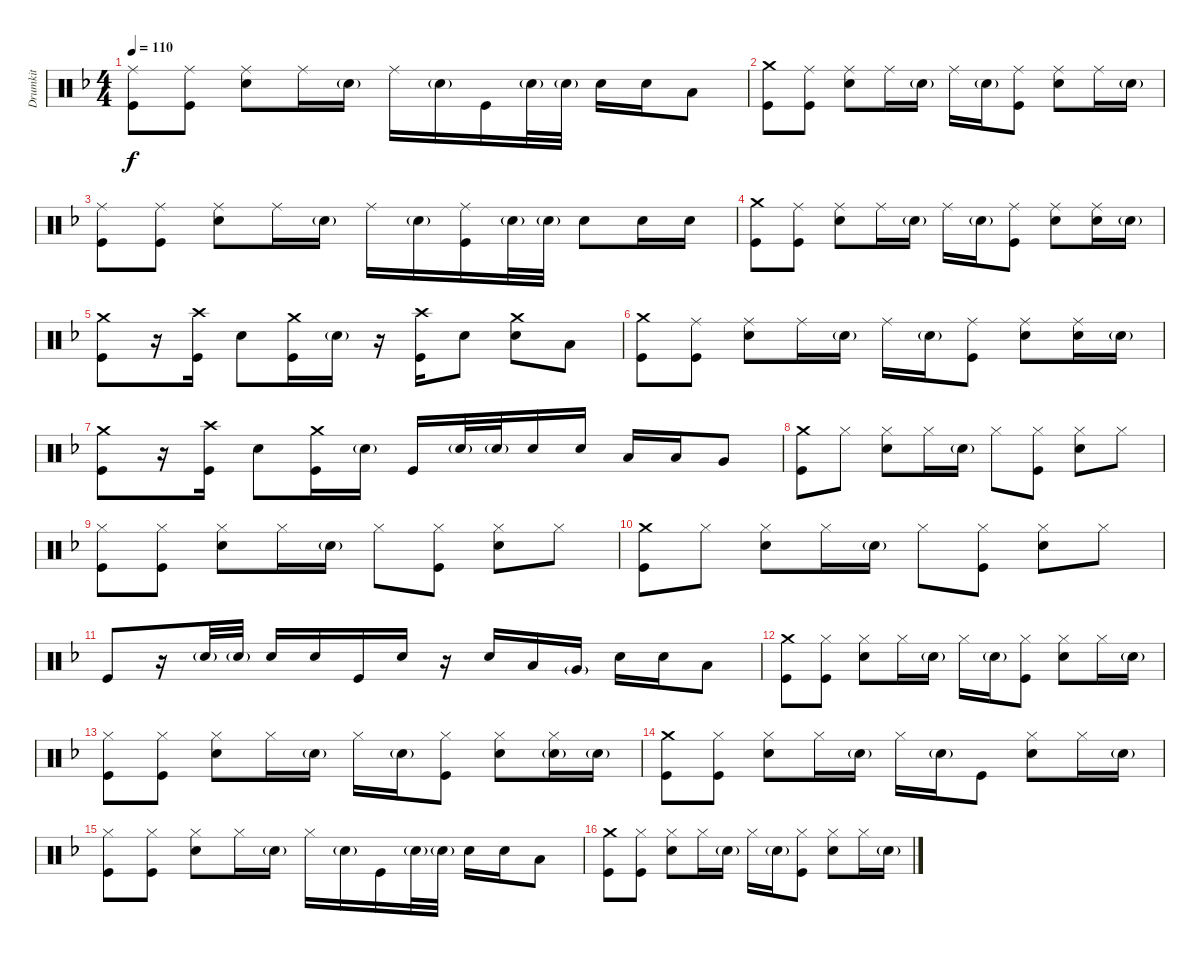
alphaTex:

\track ("Drumkit" "Drumkit") {instrument percussion}
\staff {score}
\articulation defaults
\ts (4 4)
\tempo 110
\clef neutral
\ks dminor
("Kick (hit)" "Ride (middle)").8{dy f} ("Kick (hit)" "Ride (middle)").8 ("Snare (hit) 2" "Ride (middle)").8 "Ride (middle)".16 "Snare (hit) 2"{g}.16 "Ride (middle)".16 "Snare (hit) 2"{g}.16 "Kick (hit)".16 "Snare (hit) 2"{g}.32 "Snare (hit) 2"{g}.32 "Snare (hit) 2".16 "Snare (hit) 2".16 "Low Tom (hit)".8 |
("Kick (hit)" "Crash medium (hit)").8 ("Kick (hit)" "Ride (middle)").8 ("Snare (hit) 2" "Ride (middle)").8 "Ride (middle)".16 "Snare (hit) 2"{g}.16 "Ride (middle)".16 "Snare (hit) 2"{g}.16 ("Kick (hit)" "Ride (middle)").8 ("Snare (hit) 2" "Ride (middle)").8 "Ride (middle)".16 "Snare (hit) 2"{g}.16 |
("Kick (hit)" "Ride (middle)").8 ("Kick (hit)" "Ride (middle)").8 ("Snare (hit) 2" "Ride (middle)").8 "Ride (middle)".16 "Snare (hit) 2"{g}.16 "Ride (middle)".16 "Snare (hit) 2"{g}.16 ("Kick (hit)" "Ride (middle)").16 "Snare (hit) 2"{g}.32 "Snare (hit) 2"{g}.32 "Snare (hit) 2".8 "Snare (hit) 2".16 "Snare (hit) 2".16 |
("Kick (hit)" "Crash medium (hit)").8 ("Kick (hit)" "Ride (middle)").8 ("Snare (hit) 2" "Ride (middle)").8 "Ride (middle)".16 "Snare (hit) 2"{g}.16 "Ride (middle)".16 "Snare (hit) 2"{g}.16 ("Kick (hit)" "Ride (middle)").8 ("Snare (hit) 2" "Ride (middle)").8 ("Ride (middle)" "Snare (hit) 2").16 "Snare (hit) 2"{g}.16 |
("Kick (hit)" "Crash medium (hit)").8 r.16 ("Kick (hit)" "Crash high (hit)").16 "Snare (hit) 2".8 ("Kick (hit)" "Crash medium (hit)").16 "Snare (hit) 2"{g}.16 r.16 ("Kick (hit)" "Crash high (hit)").16 "Snare (hit) 2".8 ("Snare (hit) 2" "Crash medium (hit)").8 "Low Tom (hit)".8 |
("Kick (hit)" "Crash medium (hit)").8 ("Kick (hit)" "Ride (middle)").8 ("Snare (hit) 2" "Ride (middle)").8 "Ride (middle)".16 "Snare (hit) 2"{g}.16 "Ride (middle)".16 "Snare (hit) 2"{g}.16 ("Kick (hit)" "Ride (middle)").8 ("Snare (hit) 2" "Ride (middle)").8 ("Ride (middle)" "Snare (hit) 2").16 "Snare (hit) 2"{g}.16 |
("Kick (hit)" "Crash medium (hit)").8 r.16 ("Kick (hit)" "Crash high (hit)").16 "Snare (hit) 2".8 ("Kick (hit)" "Crash medium (hit)").16 "Snare (hit) 2"{g}.16 "Kick (hit)".16 "Snare (hit) 2"{g}.32 "Snare (hit) 2"{g}.32 "Snare (hit) 2".16 "Snare (hit) 2".16 "Low Tom (hit)".16 "Low Tom (hit)".16 "Very Low Tom (hit)".8 |
("Kick (hit)" "Crash medium (hit)").8 "Hi-Hat (closed)".8 ("Snare (hit) 2" "Hi-Hat (closed)").8 "Hi-Hat (closed)".16 "Snare (hit) 2"{g}.16 "Hi-Hat (closed)".8 ("Kick (hit)" "Hi-Hat (closed)").8 ("Snare (hit) 2" "Hi-Hat (closed)").8 "Hi-Hat (closed)".8 |
("Kick (hit)" "Hi-Hat (closed)").8 ("Kick (hit)" "Hi-Hat (closed)").8 ("Snare (hit) 2" "Hi-Hat (closed)").8 "Hi-Hat (closed)".16 "Snare (hit) 2"{g}.16 "Hi-Hat (closed)".8 ("Kick (hit)" "Hi-Hat (closed)").8 ("Snare (hit) 2" "Hi-Hat (closed)").8 "Hi-Hat (closed)".8 |
("Kick (hit)" "Crash medium (hit)").8 "Hi-Hat (closed)".8 ("Snare (hit) 2" "Hi-Hat (closed)").8 "Hi-Hat (closed)".16 "Snare (hit) 2"{g}.16 "Hi-Hat (closed)".8 ("Kick (hit)" "Hi-Hat (closed)").8 ("Snare (hit) 2" "Hi-Hat (closed)").8 "Hi-Hat (closed)".8 |
"Kick (hit)".8 r.16 "Snare (hit) 2"{g}.32 "Snare (hit) 2"{g}.32 "Snare (hit) 2".16 "Snare (hit) 2".16 "Kick (hit)".16 "Snare (hit) 2".16 r.16 "Snare (hit) 2".16 "Low Tom (hit)".16 "Very Low Tom (hit)"{g}.16 "Snare (hit) 2".16 "Snare (hit) 2".16 "Low Floor Tom (hit)".8 |
("Kick (hit)" "Crash medium (hit)").8 ("Hi-Hat (closed)" "Kick (hit)").8 ("Snare (hit) 2" "Hi-Hat (closed)").8 "Hi-Hat (closed)".16 "Snare (hit) 2"{g}.16 "Hi-Hat (closed)".16 "Snare (hit) 2"{g}.16 ("Kick (hit)" "Hi-Hat (closed)").8 ("Snare (hit) 2" "Hi-Hat (closed)").8 "Hi-Hat (closed)".16 "Snare (hit) 2"{g}.16 |
("Hi-Hat (closed)" "Kick (hit)").8 ("Hi-Hat (closed)" "Kick (hit)").8 ("Snare (hit) 2" "Hi-Hat (closed)").8 "Hi-Hat (closed)".16 "Snare (hit) 2"{g}.16 "Hi-Hat (closed)".16 "Snare (hit) 2"{g}.16 ("Kick (hit)" "Hi-Hat (closed)").8 ("Snare (hit) 2" "Hi-Hat (closed)").8 ("Hi-Hat (closed)" "Snare (hit) 2"{g}).16 "Snare (hit) 2"{g}.16 |
("Kick (hit)" "Crash medium (hit)").8 ("Hi-Hat (closed)" "Kick (hit)").8 ("Snare (hit) 2" "Hi-Hat (closed)").8 "Hi-Hat (closed)".16 "Snare (hit) 2"{g}.16 "Hi-Hat (closed)".16 "Snare (hit) 2"{g}.16 "Kick (hit)".8 ("Snare (hit) 2" "Hi-Hat (closed)").8 "Hi-Hat (closed)".16 "Snare (hit) 2"{g}.16 |
("Hi-Hat (closed)" "Kick (hit)").8 ("Hi-Hat (closed)" "Kick (hit)").8 ("Snare (hit) 2" "Hi-Hat (closed)").8 "Hi-Hat (closed)".16 "Snare (hit) 2"{g}.16 "Hi-Hat (closed)".16 "Snare (hit) 2"{g}.16 "Kick (hit)".16 "Snare (hit) 2"{g}.32 "Snare (hit) 2"{g}.32 "Snare (hit) 2".16 "Snare (hit) 2".16 "Low Tom (hit)".8 |
("Kick (hit)" "Crash medium (hit)").8 ("Hi-Hat (closed)" "Kick (hit)").8 ("Snare (hit) 2" "Hi-Hat (closed)").8 "Hi-Hat (closed)".16 "Snare (hit) 2"{g}.16 "Hi-Hat (closed)".16 "Snare (hit) 2"{g}.16 ("Kick (hit)" "Hi-Hat (closed)").8 ("Snare (hit) 2" "Hi-Hat (closed)").8 "Hi-Hat (closed)".16 "Snare (hit) 2"{g}.16
